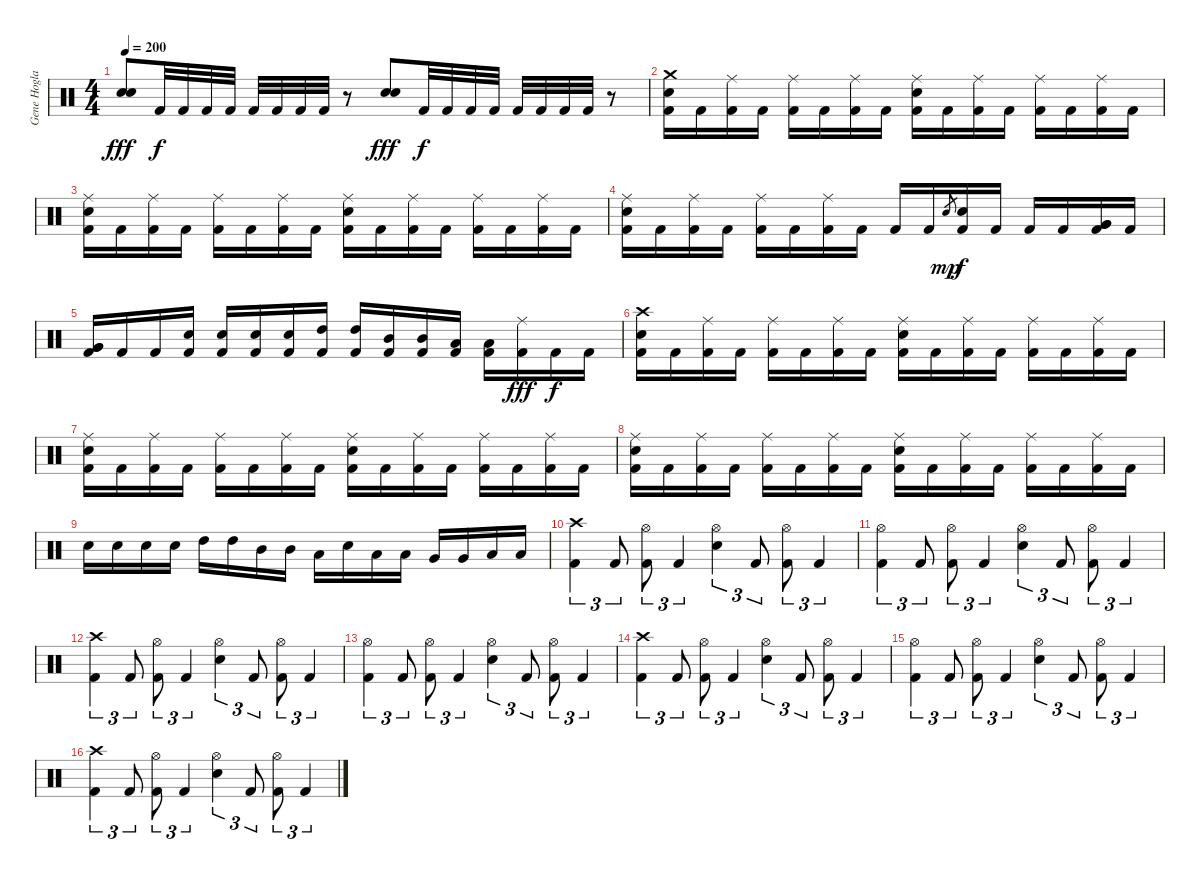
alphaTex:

\track ("Gene Hoglan" "Gene Hogla") {instrument percussion}
\staff {score}
\articulation defaults
\ts (4 4)
\tempo 200
\clef neutral
\ks c
("Snare (hit) 2" "Snare (hit) 2").8{dy fff} "Kick (hit) 2".32{dy f} "Kick (hit) 2".32 "Kick (hit) 2".32 "Kick (hit) 2".32 "Kick (hit) 2".32 "Kick (hit) 2".32 "Kick (hit) 2".32 "Kick (hit) 2".32 r.8 ("Snare (hit) 2" "Snare (hit) 2").8{dy fff} "Kick (hit) 2".32{dy f} "Kick (hit) 2".32 "Kick (hit) 2".32 "Kick (hit) 2".32 "Kick (hit) 2".32 "Kick (hit) 2".32 "Kick (hit) 2".32 "Kick (hit) 2".32 r.8 |
("Crash medium (hit)" "Snare (hit) 2" "Kick (hit) 2").16 "Kick (hit) 2".16 ("Ride (middle)" "Kick (hit) 2").16 "Kick (hit) 2".16 ("Ride (middle)" "Kick (hit) 2").16 "Kick (hit) 2".16 ("Ride (middle)" "Kick (hit) 2").16 "Kick (hit) 2".16 ("Ride (middle)" "Snare (hit) 2" "Kick (hit) 2").16 "Kick (hit) 2".16 ("Ride (middle)" "Kick (hit) 2").16 "Kick (hit) 2".16 ("Ride (middle)" "Kick (hit) 2").16 "Kick (hit) 2".16 ("Ride (middle)" "Kick (hit) 2").16 "Kick (hit) 2".16 |
("Ride (middle)" "Snare (hit) 2" "Kick (hit) 2").16 "Kick (hit) 2".16 ("Ride (middle)" "Kick (hit) 2").16 "Kick (hit) 2".16 ("Ride (middle)" "Kick (hit) 2").16 "Kick (hit) 2".16 ("Ride (middle)" "Kick (hit) 2").16 "Kick (hit) 2".16 ("Ride (middle)" "Snare (hit) 2" "Kick (hit) 2").16 "Kick (hit) 2".16 ("Ride (middle)" "Kick (hit) 2").16 "Kick (hit) 2".16 ("Ride (middle)" "Kick (hit) 2").16 "Kick (hit) 2".16 ("Ride (middle)" "Kick (hit) 2").16 "Kick (hit) 2".16 |
("Ride (middle)" "Snare (hit) 2" "Kick (hit) 2").16 "Kick (hit) 2".16 ("Ride (middle)" "Kick (hit) 2").16 "Kick (hit) 2".16 ("Ride (middle)" "Kick (hit) 2").16 "Kick (hit) 2".16 ("Ride (middle)" "Kick (hit) 2").16 "Kick (hit) 2".16 "Kick (hit) 2".16 "Kick (hit) 2".16 "Snare (hit) 2".8{gr dy mp} ("Snare (hit) 2" "Kick (hit) 2").16{dy f} "Kick (hit) 2".16 "Kick (hit) 2".16 "Kick (hit) 2".16 ("Very Low Tom (hit)" "Very Low Tom (hit)" "Kick (hit) 2").16 "Kick (hit) 2".16 |
("Very Low Tom (hit)" "Very Low Tom (hit)" "Kick (hit) 2").16 "Kick (hit) 2".16 "Kick (hit) 2".16 ("Snare (hit) 2" "Kick (hit) 2").16 ("Snare (hit) 2" "Kick (hit) 2").16 ("Snare (hit) 2" "Kick (hit) 2").16 ("Snare (hit) 2" "Kick (hit) 2").16 ("High Tom (hit)" "Kick (hit) 2").16 ("High Tom (hit)" "Kick (hit) 2").16 ("Mid Tom (hit)" "Kick (hit) 2").16 ("Mid Tom (hit)" "Kick (hit) 2").16 ("Low Tom (hit)" "Kick (hit) 2").16 ("Low Tom (hit)" "Kick (hit) 2").16 ("Ride (middle)" "Kick (hit) 2").16{dy fff} "Kick (hit) 2".16{dy f} "Kick (hit) 2".16 |
("Crash high (hit)" "Snare (hit) 2" "Kick (hit) 2").16 "Kick (hit) 2".16 ("Ride (middle)" "Kick (hit) 2").16 "Kick (hit) 2".16 ("Ride (middle)" "Kick (hit) 2").16 "Kick (hit) 2".16 ("Ride (middle)" "Kick (hit) 2").16 "Kick (hit) 2".16 ("Ride (middle)" "Snare (hit) 2" "Kick (hit) 2").16 "Kick (hit) 2".16 ("Ride (middle)" "Kick (hit) 2").16 "Kick (hit) 2".16 ("Ride (middle)" "Kick (hit) 2").16 "Kick (hit) 2".16 ("Ride (middle)" "Kick (hit) 2").16 "Kick (hit) 2".16 |
("Ride (middle)" "Snare (hit) 2" "Kick (hit) 2").16 "Kick (hit) 2".16 ("Ride (middle)" "Kick (hit) 2").16 "Kick (hit) 2".16 ("Ride (middle)" "Kick (hit) 2").16 "Kick (hit) 2".16 ("Ride (middle)" "Kick (hit) 2").16 "Kick (hit) 2".16 ("Ride (middle)" "Snare (hit) 2" "Kick (hit) 2").16 "Kick (hit) 2".16 ("Ride (middle)" "Kick (hit) 2").16 "Kick (hit) 2".16 ("Ride (middle)" "Kick (hit) 2").16 "Kick (hit) 2".16 ("Ride (middle)" "Kick (hit) 2").16 "Kick (hit) 2".16 |
("Ride (middle)" "Snare (hit) 2" "Kick (hit) 2").16 "Kick (hit) 2".16 ("Ride (middle)" "Kick (hit) 2").16 "Kick (hit) 2".16 ("Ride (middle)" "Kick (hit) 2").16 "Kick (hit) 2".16 ("Ride (middle)" "Kick (hit) 2").16 "Kick (hit) 2".16 ("Ride (middle)" "Snare (hit) 2" "Kick (hit) 2").16 "Kick (hit) 2".16 ("Ride (middle)" "Kick (hit) 2").16 "Kick (hit) 2".16 ("Ride (middle)" "Kick (hit) 2").16 "Kick (hit) 2".16 ("Ride (middle)" "Kick (hit) 2").16 "Kick (hit) 2".16 |
"Snare (hit) 2".16 "Snare (hit) 2".16 "Snare (hit) 2".16 "Snare (hit) 2".16 "High Tom (hit)".16 "High Tom (hit)".16 "Mid Tom (hit)".16 "Mid Tom (hit)".16 "Low Tom (hit)".16 "Snare (hit) 2".16 "Low Tom (hit)".16 "Low Tom (hit)".16 "Very Low Tom (hit)".16 "Very Low Tom (hit)".16 "Low Floor Tom (hit)".16 "Low Floor Tom (hit)".16 |
("Crash high (hit)" "Kick (hit) 2").4{tu (3 2)} "Kick (hit) 2".8{tu (3 2)} ("Hi-Hat (open)" "Kick (hit) 2").8{tu (3 2)} "Kick (hit) 2".4{tu (3 2)} ("Hi-Hat (open)" "Snare (hit) 2").4{tu (3 2)} "Kick (hit) 2".8{tu (3 2)} ("Hi-Hat (open)" "Kick (hit) 2").8{tu (3 2)} "Kick (hit) 2".4{tu (3 2)} |
("Hi-Hat (open)" "Kick (hit) 2").4{tu (3 2)} "Kick (hit) 2".8{tu (3 2)} ("Hi-Hat (open)" "Kick (hit) 2").8{tu (3 2)} "Kick (hit) 2".4{tu (3 2)} ("Hi-Hat (open)" "Snare (hit) 2").4{tu (3 2)} "Kick (hit) 2".8{tu (3 2)} ("Hi-Hat (open)" "Kick (hit) 2").8{tu (3 2)} "Kick (hit) 2".4{tu (3 2)} |
("Crash high (hit)" "Kick (hit) 2").4{tu (3 2)} "Kick (hit) 2".8{tu (3 2)} ("Hi-Hat (open)" "Kick (hit) 2").8{tu (3 2)} "Kick (hit) 2".4{tu (3 2)} ("Hi-Hat (open)" "Snare (hit) 2").4{tu (3 2)} "Kick (hit) 2".8{tu (3 2)} ("Hi-Hat (open)" "Kick (hit) 2").8{tu (3 2)} "Kick (hit) 2".4{tu (3 2)} |
("Hi-Hat (open)" "Kick (hit) 2").4{tu (3 2)} "Kick (hit) 2".8{tu (3 2)} ("Hi-Hat (open)" "Kick (hit) 2").8{tu (3 2)} "Kick (hit) 2".4{tu (3 2)} ("Hi-Hat (open)" "Snare (hit) 2").4{tu (3 2)} "Kick (hit) 2".8{tu (3 2)} ("Hi-Hat (open)" "Kick (hit) 2").8{tu (3 2)} "Kick (hit) 2".4{tu (3 2)} |
("Crash high (hit)" "Kick (hit) 2").4{tu (3 2)} "Kick (hit) 2".8{tu (3 2)} ("Hi-Hat (open)" "Kick (hit) 2").8{tu (3 2)} "Kick (hit) 2".4{tu (3 2)} ("Hi-Hat (open)" "Snare (hit) 2").4{tu (3 2)} "Kick (hit) 2".8{tu (3 2)} ("Hi-Hat (open)" "Kick (hit) 2").8{tu (3 2)} "Kick (hit) 2".4{tu (3 2)} |
("Hi-Hat (open)" "Kick (hit) 2").4{tu (3 2)} "Kick (hit) 2".8{tu (3 2)} ("Hi-Hat (open)" "Kick (hit) 2").8{tu (3 2)} "Kick (hit) 2".4{tu (3 2)} ("Hi-Hat (open)" "Snare (hit) 2").4{tu (3 2)} "Kick (hit) 2".8{tu (3 2)} ("Hi-Hat (open)" "Kick (hit) 2").8{tu (3 2)} "Kick (hit) 2".4{tu (3 2)} |
("Crash high (hit)" "Kick (hit) 2").4{tu (3 2)} "Kick (hit) 2".8{tu (3 2)} ("Hi-Hat (open)" "Kick (hit) 2").8{tu (3 2)} "Kick (hit) 2".4{tu (3 2)} ("Hi-Hat (open)" "Snare (hit) 2").4{tu (3 2)} "Kick (hit) 2".8{tu (3 2)} ("Hi-Hat (open)" "Kick (hit) 2").8{tu (3 2)} "Kick (hit) 2".4{tu (3 2)}
